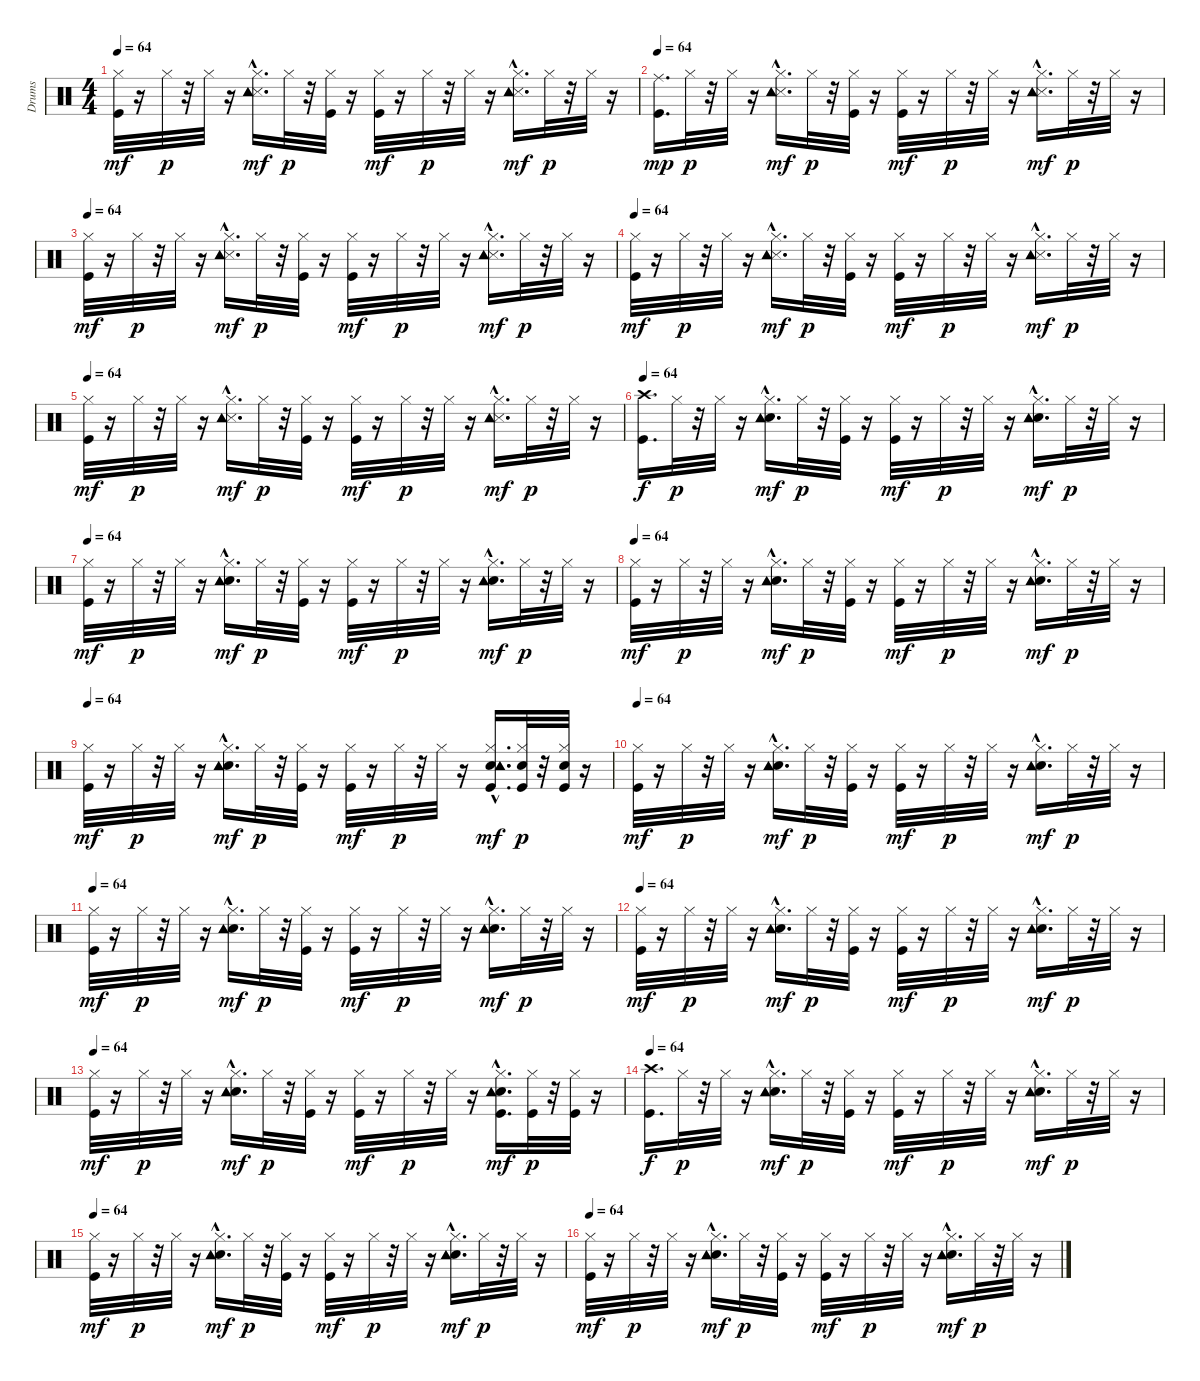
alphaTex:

\track ("Drums" "Drums") {instrument percussion}
\staff {score}
\articulation defaults
\ts (4 4)
\tempo 64
\clef neutral
\ks c
("Kick (hit)" "Hi-Hat (closed)").32{dy mf} r.16 "Hi-Hat (closed)".32{dy p} r.32 "Hi-Hat (closed)".32 r.16 ("Hi-Hat (closed)" "Snare (side stick) 3" "Tambourine (hit)"{hac} "Tambourine (hit)").16{d dy mf} "Hi-Hat (closed)".32{dy p} r.32 ("Kick (hit)" "Hi-Hat (closed)").32 r.16 ("Kick (hit)" "Hi-Hat (closed)").32{dy mf} r.16 "Hi-Hat (closed)".32{dy p} r.32 "Hi-Hat (closed)".32 r.16 ("Hi-Hat (closed)" "Snare (side stick) 3" "Tambourine (hit)"{hac} "Tambourine (hit)").16{d dy mf} "Hi-Hat (closed)".32{dy p} r.32 "Hi-Hat (closed)".32 r.16 |
\tempo 64
("Kick (hit)" "Ride (middle)").16{d dy mp} "Hi-Hat (closed)".32{dy p} r.32 "Hi-Hat (closed)".32 r.16 ("Hi-Hat (closed)" "Snare (side stick) 3" "Tambourine (hit)"{hac} "Tambourine (hit)").16{d dy mf} "Hi-Hat (closed)".32{dy p} r.32 ("Kick (hit)" "Hi-Hat (closed)").32 r.16 ("Kick (hit)" "Hi-Hat (closed)").32{dy mf} r.16 "Hi-Hat (closed)".32{dy p} r.32 "Hi-Hat (closed)".32 r.16 ("Hi-Hat (closed)" "Snare (side stick) 3" "Tambourine (hit)"{hac} "Tambourine (hit)").16{d dy mf} "Hi-Hat (closed)".32{dy p} r.32 "Hi-Hat (closed)".32 r.16 |
\tempo 64
("Kick (hit)" "Hi-Hat (closed)").32{dy mf} r.16 "Hi-Hat (closed)".32{dy p} r.32 "Hi-Hat (closed)".32 r.16 ("Hi-Hat (closed)" "Snare (side stick) 3" "Tambourine (hit)"{hac} "Tambourine (hit)").16{d dy mf} "Hi-Hat (closed)".32{dy p} r.32 ("Kick (hit)" "Hi-Hat (closed)").32 r.16 ("Kick (hit)" "Hi-Hat (closed)").32{dy mf} r.16 "Hi-Hat (closed)".32{dy p} r.32 "Hi-Hat (closed)".32 r.16 ("Hi-Hat (closed)" "Snare (side stick) 3" "Tambourine (hit)"{hac} "Tambourine (hit)").16{d dy mf} "Hi-Hat (closed)".32{dy p} r.32 "Hi-Hat (closed)".32 r.16 |
\tempo 64
("Kick (hit)" "Hi-Hat (closed)").32{dy mf} r.16 "Hi-Hat (closed)".32{dy p} r.32 "Hi-Hat (closed)".32 r.16 ("Hi-Hat (closed)" "Snare (side stick) 3" "Tambourine (hit)"{hac} "Tambourine (hit)").16{d dy mf} "Hi-Hat (closed)".32{dy p} r.32 ("Kick (hit)" "Hi-Hat (closed)").32 r.16 ("Kick (hit)" "Hi-Hat (closed)").32{dy mf} r.16 "Hi-Hat (closed)".32{dy p} r.32 "Hi-Hat (closed)".32 r.16 ("Hi-Hat (closed)" "Snare (side stick) 3" "Tambourine (hit)"{hac} "Tambourine (hit)").16{d dy mf} "Hi-Hat (closed)".32{dy p} r.32 "Hi-Hat (closed)".32 r.16 |
\tempo 64
("Kick (hit)" "Hi-Hat (closed)").32{dy mf} r.16 "Hi-Hat (closed)".32{dy p} r.32 "Hi-Hat (closed)".32 r.16 ("Hi-Hat (closed)" "Snare (side stick) 3" "Tambourine (hit)"{hac} "Tambourine (hit)").16{d dy mf} "Hi-Hat (closed)".32{dy p} r.32 ("Kick (hit)" "Hi-Hat (closed)").32 r.16 ("Kick (hit)" "Hi-Hat (closed)").32{dy mf} r.16 "Hi-Hat (closed)".32{dy p} r.32 "Hi-Hat (closed)".32 r.16 ("Hi-Hat (closed)" "Snare (side stick) 3" "Tambourine (hit)"{hac} "Tambourine (hit)").16{d dy mf} "Hi-Hat (closed)".32{dy p} r.32 "Hi-Hat (closed)".32 r.16 |
\tempo 64
("Kick (hit)" "Crash high (hit)").16{d dy f} "Hi-Hat (closed)".32{dy p} r.32 "Hi-Hat (closed)".32 r.16 ("Snare (hit) 2" "Hi-Hat (closed)" "Tambourine (hit)"{hac} "Tambourine (hit)").16{d dy mf} "Hi-Hat (closed)".32{dy p} r.32 ("Kick (hit)" "Hi-Hat (closed)").32 r.16 ("Kick (hit)" "Hi-Hat (closed)").32{dy mf} r.16 "Hi-Hat (closed)".32{dy p} r.32 "Hi-Hat (closed)".32 r.16 ("Snare (hit) 2" "Hi-Hat (closed)" "Tambourine (hit)"{hac} "Tambourine (hit)").16{d dy mf} "Hi-Hat (closed)".32{dy p} r.32 "Hi-Hat (closed)".32 r.16 |
\tempo 64
("Kick (hit)" "Hi-Hat (closed)").32{dy mf} r.16 "Hi-Hat (closed)".32{dy p} r.32 "Hi-Hat (closed)".32 r.16 ("Snare (hit) 2" "Hi-Hat (closed)" "Tambourine (hit)"{hac} "Tambourine (hit)").16{d dy mf} "Hi-Hat (closed)".32{dy p} r.32 ("Kick (hit)" "Hi-Hat (closed)").32 r.16 ("Kick (hit)" "Hi-Hat (closed)").32{dy mf} r.16 "Hi-Hat (closed)".32{dy p} r.32 "Hi-Hat (closed)".32 r.16 ("Snare (hit) 2" "Hi-Hat (closed)" "Tambourine (hit)"{hac} "Tambourine (hit)").16{d dy mf} "Hi-Hat (closed)".32{dy p} r.32 "Hi-Hat (closed)".32 r.16 |
\tempo 64
("Kick (hit)" "Hi-Hat (closed)").32{dy mf} r.16 "Hi-Hat (closed)".32{dy p} r.32 "Hi-Hat (closed)".32 r.16 ("Snare (hit) 2" "Hi-Hat (closed)" "Tambourine (hit)"{hac} "Tambourine (hit)").16{d dy mf} "Hi-Hat (closed)".32{dy p} r.32 ("Kick (hit)" "Hi-Hat (closed)").32 r.16 ("Kick (hit)" "Hi-Hat (closed)").32{dy mf} r.16 "Hi-Hat (closed)".32{dy p} r.32 "Hi-Hat (closed)".32 r.16 ("Snare (hit) 2" "Hi-Hat (closed)" "Tambourine (hit)"{hac} "Tambourine (hit)").16{d dy mf} "Hi-Hat (closed)".32{dy p} r.32 "Hi-Hat (closed)".32 r.16 |
\tempo 64
("Kick (hit)" "Hi-Hat (closed)").32{dy mf} r.16 "Hi-Hat (closed)".32{dy p} r.32 "Hi-Hat (closed)".32 r.16 ("Snare (hit) 2" "Hi-Hat (closed)" "Tambourine (hit)"{hac} "Tambourine (hit)").16{d dy mf} "Hi-Hat (closed)".32{dy p} r.32 ("Kick (hit)" "Hi-Hat (closed)").32 r.16 ("Kick (hit)" "Hi-Hat (closed)").32{dy mf} r.16 "Hi-Hat (closed)".32{dy p} r.32 "Hi-Hat (closed)".32 r.16 ("Kick (hit)" "Snare (hit) 2" "Hi-Hat (closed)" "Tambourine (hit)"{hac} "Tambourine (hit)").16{d dy mf} ("Kick (hit)" "Snare (hit) 2" "Hi-Hat (closed)").32{dy p} r.32 ("Kick (hit)" "Snare (hit) 2" "Hi-Hat (closed)").32 r.16 |
\tempo 64
("Kick (hit)" "Hi-Hat (closed)").32{dy mf} r.16 "Hi-Hat (closed)".32{dy p} r.32 "Hi-Hat (closed)".32 r.16 ("Snare (hit) 2" "Hi-Hat (closed)" "Tambourine (hit)"{hac} "Tambourine (hit)").16{d dy mf} "Hi-Hat (closed)".32{dy p} r.32 ("Kick (hit)" "Hi-Hat (closed)").32 r.16 ("Kick (hit)" "Hi-Hat (closed)").32{dy mf} r.16 "Hi-Hat (closed)".32{dy p} r.32 "Hi-Hat (closed)".32 r.16 ("Snare (hit) 2" "Hi-Hat (closed)" "Tambourine (hit)"{hac} "Tambourine (hit)").16{d dy mf} "Hi-Hat (closed)".32{dy p} r.32 "Hi-Hat (closed)".32 r.16 |
\tempo 64
("Kick (hit)" "Hi-Hat (closed)").32{dy mf} r.16 "Hi-Hat (closed)".32{dy p} r.32 "Hi-Hat (closed)".32 r.16 ("Snare (hit) 2" "Hi-Hat (closed)" "Tambourine (hit)"{hac} "Tambourine (hit)").16{d dy mf} "Hi-Hat (closed)".32{dy p} r.32 ("Kick (hit)" "Hi-Hat (closed)").32 r.16 ("Kick (hit)" "Hi-Hat (closed)").32{dy mf} r.16 "Hi-Hat (closed)".32{dy p} r.32 "Hi-Hat (closed)".32 r.16 ("Snare (hit) 2" "Hi-Hat (closed)" "Tambourine (hit)"{hac} "Tambourine (hit)").16{d dy mf} "Hi-Hat (closed)".32{dy p} r.32 "Hi-Hat (closed)".32 r.16 |
\tempo 64
("Kick (hit)" "Hi-Hat (closed)").32{dy mf} r.16 "Hi-Hat (closed)".32{dy p} r.32 "Hi-Hat (closed)".32 r.16 ("Snare (hit) 2" "Hi-Hat (closed)" "Tambourine (hit)"{hac} "Tambourine (hit)").16{d dy mf} "Hi-Hat (closed)".32{dy p} r.32 ("Kick (hit)" "Hi-Hat (closed)").32 r.16 ("Kick (hit)" "Hi-Hat (closed)").32{dy mf} r.16 "Hi-Hat (closed)".32{dy p} r.32 "Hi-Hat (closed)".32 r.16 ("Snare (hit) 2" "Hi-Hat (closed)" "Tambourine (hit)"{hac} "Tambourine (hit)").16{d dy mf} "Hi-Hat (closed)".32{dy p} r.32 "Hi-Hat (closed)".32 r.16 |
\tempo 64
("Kick (hit)" "Hi-Hat (closed)").32{dy mf} r.16 "Hi-Hat (closed)".32{dy p} r.32 "Hi-Hat (closed)".32 r.16 ("Snare (hit) 2" "Hi-Hat (closed)" "Tambourine (hit)"{hac} "Tambourine (hit)").16{d dy mf} "Hi-Hat (closed)".32{dy p} r.32 ("Kick (hit)" "Hi-Hat (closed)").32 r.16 ("Kick (hit)" "Hi-Hat (closed)").32{dy mf} r.16 "Hi-Hat (closed)".32{dy p} r.32 "Hi-Hat (closed)".32 r.16 ("Kick (hit)" "Snare (hit) 2" "Hi-Hat (closed)" "Tambourine (hit)"{hac} "Tambourine (hit)").16{d dy mf} ("Kick (hit)" "Hi-Hat (closed)").32{dy p} r.32 ("Kick (hit)" "Hi-Hat (closed)").32 r.16 |
\tempo 64
("Kick (hit)" "Crash high (hit)").16{d dy f} "Hi-Hat (closed)".32{dy p} r.32 "Hi-Hat (closed)".32 r.16 ("Snare (hit) 2" "Hi-Hat (closed)" "Tambourine (hit)"{hac} "Tambourine (hit)").16{d dy mf} "Hi-Hat (closed)".32{dy p} r.32 ("Kick (hit)" "Hi-Hat (closed)").32 r.16 ("Kick (hit)" "Hi-Hat (closed)").32{dy mf} r.16 "Hi-Hat (closed)".32{dy p} r.32 "Hi-Hat (closed)".32 r.16 ("Snare (hit) 2" "Hi-Hat (closed)" "Tambourine (hit)"{hac} "Tambourine (hit)").16{d dy mf} "Hi-Hat (closed)".32{dy p} r.32 "Hi-Hat (closed)".32 r.16 |
\tempo 64
("Kick (hit)" "Hi-Hat (closed)").32{dy mf} r.16 "Hi-Hat (closed)".32{dy p} r.32 "Hi-Hat (closed)".32 r.16 ("Snare (hit) 2" "Hi-Hat (closed)" "Tambourine (hit)"{hac} "Tambourine (hit)").16{d dy mf} "Hi-Hat (closed)".32{dy p} r.32 ("Kick (hit)" "Hi-Hat (closed)").32 r.16 ("Kick (hit)" "Hi-Hat (closed)").32{dy mf} r.16 "Hi-Hat (closed)".32{dy p} r.32 "Hi-Hat (closed)".32 r.16 ("Snare (hit) 2" "Hi-Hat (closed)" "Tambourine (hit)"{hac} "Tambourine (hit)").16{d dy mf} "Hi-Hat (closed)".32{dy p} r.32 "Hi-Hat (closed)".32 r.16 |
\tempo 64
("Kick (hit)" "Hi-Hat (closed)").32{dy mf} r.16 "Hi-Hat (closed)".32{dy p} r.32 "Hi-Hat (closed)".32 r.16 ("Snare (hit) 2" "Hi-Hat (closed)" "Tambourine (hit)"{hac} "Tambourine (hit)").16{d dy mf} "Hi-Hat (closed)".32{dy p} r.32 ("Kick (hit)" "Hi-Hat (closed)").32 r.16 ("Kick (hit)" "Hi-Hat (closed)").32{dy mf} r.16 "Hi-Hat (closed)".32{dy p} r.32 "Hi-Hat (closed)".32 r.16 ("Snare (hit) 2" "Hi-Hat (closed)" "Tambourine (hit)"{hac} "Tambourine (hit)").16{d dy mf} "Hi-Hat (closed)".32{dy p} r.32 "Hi-Hat (closed)".32 r.16
